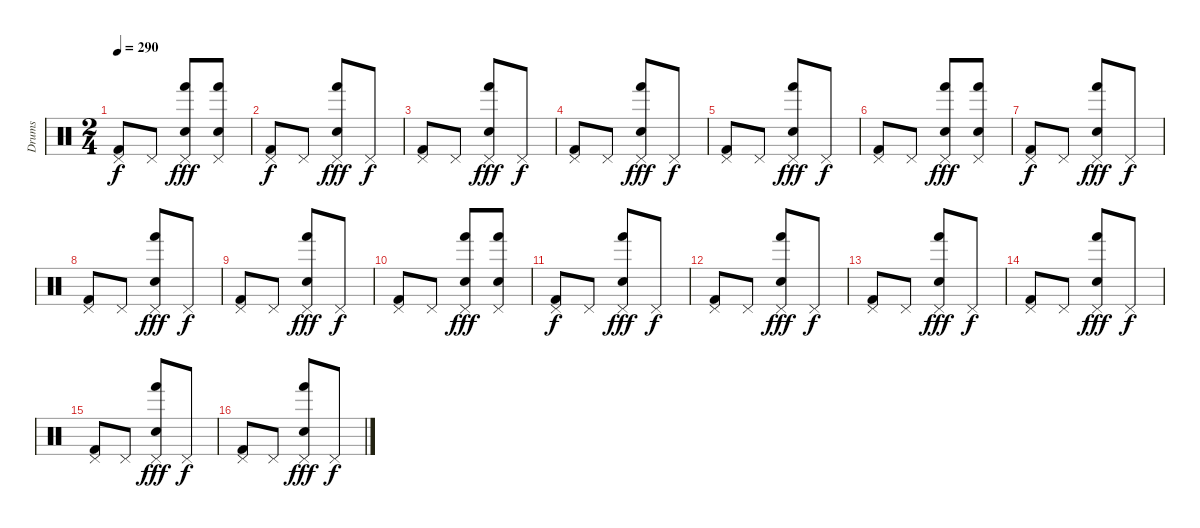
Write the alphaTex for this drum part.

\track ("Drums" "Drums") {instrument percussion}
\staff {score}
\articulation defaults
\ts (2 4)
\tempo 290
\clef neutral
\ks c
("Pedal Hi-Hat (hit)" "Kick (hit) 2").8{dy f} "Pedal Hi-Hat (hit)".8 ("Pedal Hi-Hat (hit)" "Hand (hit)" "Electric Snare (hit)").8{dy fff} ("Pedal Hi-Hat (hit)" "Hand (hit)" "Electric Snare (hit)").8 |
("Pedal Hi-Hat (hit)" "Kick (hit) 2").8{dy f} "Pedal Hi-Hat (hit)".8 ("Pedal Hi-Hat (hit)" "Hand (hit)" "Electric Snare (hit)").8{dy fff} "Pedal Hi-Hat (hit)".8{dy f} |
("Pedal Hi-Hat (hit)" "Kick (hit) 2").8 "Pedal Hi-Hat (hit)".8 ("Pedal Hi-Hat (hit)" "Hand (hit)" "Electric Snare (hit)").8{dy fff} "Pedal Hi-Hat (hit)".8{dy f} |
("Pedal Hi-Hat (hit)" "Kick (hit) 2").8 "Pedal Hi-Hat (hit)".8 ("Pedal Hi-Hat (hit)" "Hand (hit)" "Electric Snare (hit)").8{dy fff} "Pedal Hi-Hat (hit)".8{dy f} |
("Pedal Hi-Hat (hit)" "Kick (hit) 2").8 "Pedal Hi-Hat (hit)".8 ("Pedal Hi-Hat (hit)" "Hand (hit)" "Electric Snare (hit)").8{dy fff} "Pedal Hi-Hat (hit)".8{dy f} |
("Pedal Hi-Hat (hit)" "Kick (hit) 2").8 "Pedal Hi-Hat (hit)".8 ("Pedal Hi-Hat (hit)" "Hand (hit)" "Electric Snare (hit)").8{dy fff} ("Pedal Hi-Hat (hit)" "Hand (hit)" "Electric Snare (hit)").8 |
("Pedal Hi-Hat (hit)" "Kick (hit) 2").8{dy f} "Pedal Hi-Hat (hit)".8 ("Pedal Hi-Hat (hit)" "Hand (hit)" "Electric Snare (hit)").8{dy fff} "Pedal Hi-Hat (hit)".8{dy f} |
("Pedal Hi-Hat (hit)" "Kick (hit) 2").8 "Pedal Hi-Hat (hit)".8 ("Pedal Hi-Hat (hit)" "Hand (hit)" "Electric Snare (hit)").8{dy fff} "Pedal Hi-Hat (hit)".8{dy f} |
("Pedal Hi-Hat (hit)" "Kick (hit) 2").8 "Pedal Hi-Hat (hit)".8 ("Pedal Hi-Hat (hit)" "Hand (hit)" "Electric Snare (hit)").8{dy fff} "Pedal Hi-Hat (hit)".8{dy f} |
("Pedal Hi-Hat (hit)" "Kick (hit) 2").8 "Pedal Hi-Hat (hit)".8 ("Pedal Hi-Hat (hit)" "Hand (hit)" "Electric Snare (hit)").8{dy fff} ("Pedal Hi-Hat (hit)" "Hand (hit)" "Electric Snare (hit)").8 |
("Pedal Hi-Hat (hit)" "Kick (hit) 2").8{dy f} "Pedal Hi-Hat (hit)".8 ("Pedal Hi-Hat (hit)" "Hand (hit)" "Electric Snare (hit)").8{dy fff} "Pedal Hi-Hat (hit)".8{dy f} |
("Pedal Hi-Hat (hit)" "Kick (hit) 2").8 "Pedal Hi-Hat (hit)".8 ("Pedal Hi-Hat (hit)" "Hand (hit)" "Electric Snare (hit)").8{dy fff} "Pedal Hi-Hat (hit)".8{dy f} |
("Pedal Hi-Hat (hit)" "Kick (hit) 2").8 "Pedal Hi-Hat (hit)".8 ("Pedal Hi-Hat (hit)" "Hand (hit)" "Electric Snare (hit)").8{dy fff} "Pedal Hi-Hat (hit)".8{dy f} |
("Pedal Hi-Hat (hit)" "Kick (hit) 2").8 "Pedal Hi-Hat (hit)".8 ("Pedal Hi-Hat (hit)" "Hand (hit)" "Electric Snare (hit)").8{dy fff} "Pedal Hi-Hat (hit)".8{dy f} |
("Pedal Hi-Hat (hit)" "Kick (hit) 2").8 "Pedal Hi-Hat (hit)".8 ("Pedal Hi-Hat (hit)" "Hand (hit)" "Electric Snare (hit)").8{dy fff} "Pedal Hi-Hat (hit)".8{dy f} |
("Pedal Hi-Hat (hit)" "Kick (hit) 2").8 "Pedal Hi-Hat (hit)".8 ("Pedal Hi-Hat (hit)" "Hand (hit)" "Electric Snare (hit)").8{dy fff} "Pedal Hi-Hat (hit)".8{dy f}
